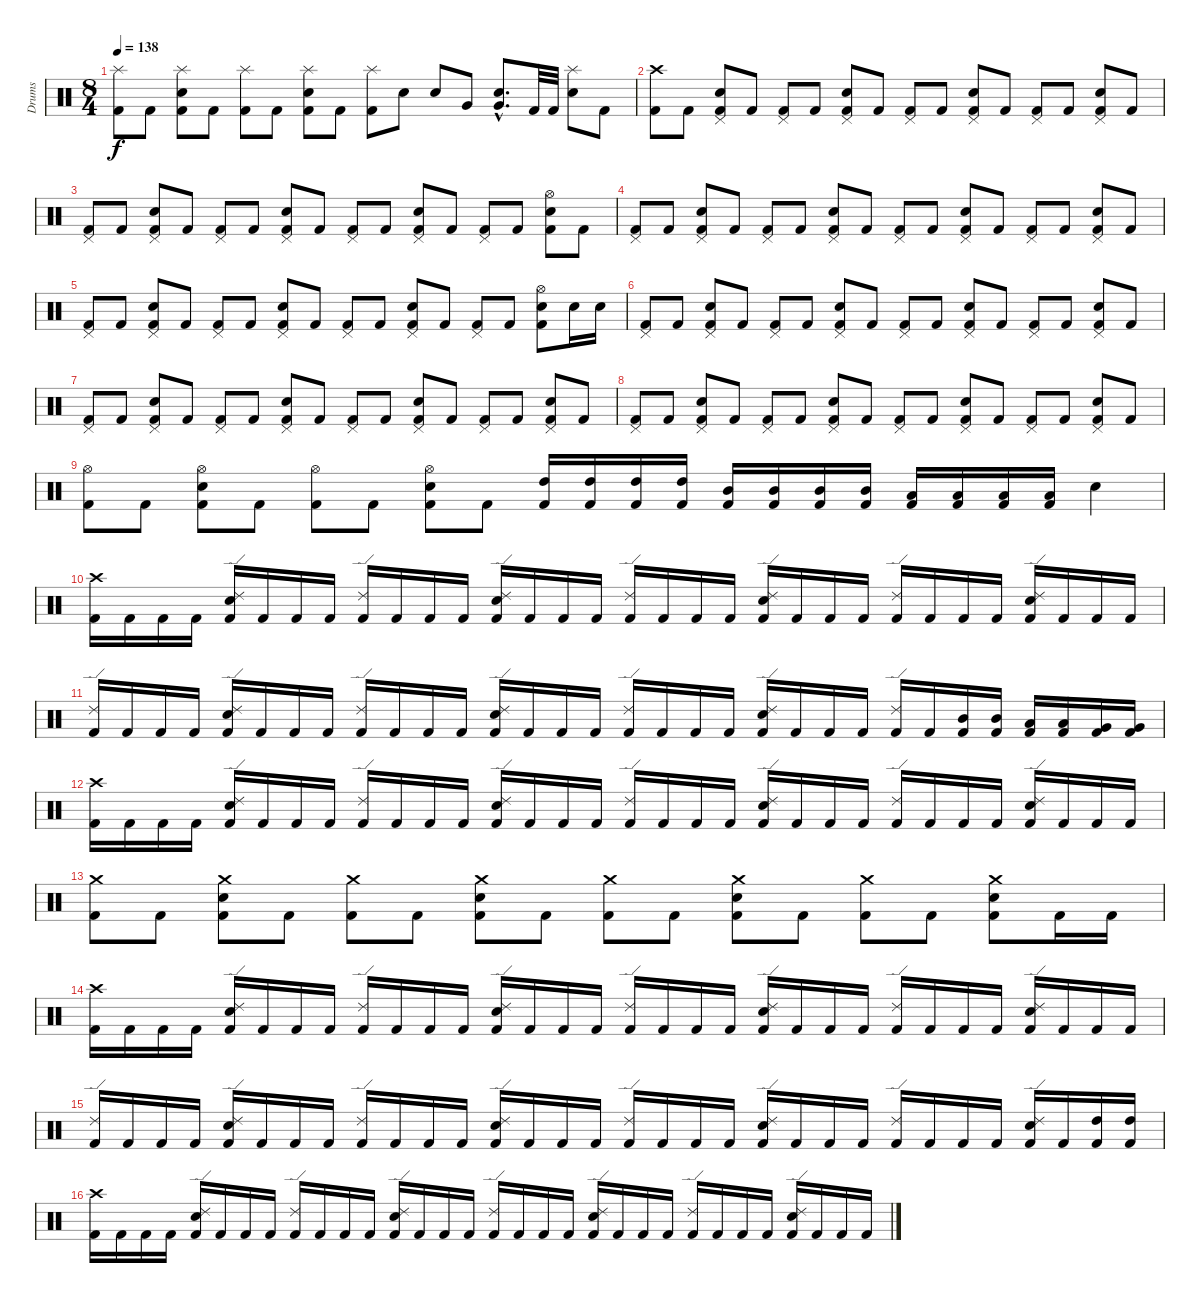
\track ("Drums" "Drums") {instrument percussion}
\staff {score}
\articulation defaults
\ts (8 4)
\tempo 138
\clef neutral
\ks c
("Splash (hit)" "Kick (hit) 2").8{dy f} "Kick (hit) 2".8 ("Splash (hit)" "Snare (hit) 2" "Kick (hit) 2").8 "Kick (hit) 2".8 ("Splash (hit)" "Kick (hit) 2").8 "Kick (hit) 2".8 ("Splash (hit)" "Snare (hit) 2" "Kick (hit) 2").8 "Kick (hit) 2".8 ("Splash (hit)" "Kick (hit) 2").8 "Snare (hit) 2".8 "Snare (hit) 2".8 "Very Low Tom (hit)".8 ("Very Low Tom (hit)"{hac} "Snare (hit) 2"{hac}).8{d} "Kick (hit) 2".32 "Kick (hit) 2".32 ("Splash (hit)" "Snare (hit) 2").8 "Kick (hit) 2".8 |
("Crash high (hit)" "Kick (hit) 2").8 "Kick (hit) 2".8 ("Pedal Hi-Hat (hit)" "Snare (hit) 2" "Kick (hit) 2").8 "Kick (hit) 2".8 ("Pedal Hi-Hat (hit)" "Kick (hit) 2").8 "Kick (hit) 2".8 ("Pedal Hi-Hat (hit)" "Snare (hit) 2" "Kick (hit) 2").8 "Kick (hit) 2".8 ("Pedal Hi-Hat (hit)" "Kick (hit) 2").8 "Kick (hit) 2".8 ("Pedal Hi-Hat (hit)" "Snare (hit) 2" "Kick (hit) 2").8 "Kick (hit) 2".8 ("Pedal Hi-Hat (hit)" "Kick (hit) 2").8 "Kick (hit) 2".8 ("Pedal Hi-Hat (hit)" "Snare (hit) 2" "Kick (hit) 2").8 "Kick (hit) 2".8 |
("Pedal Hi-Hat (hit)" "Kick (hit) 2").8 "Kick (hit) 2".8 ("Pedal Hi-Hat (hit)" "Snare (hit) 2" "Kick (hit) 2").8 "Kick (hit) 2".8 ("Pedal Hi-Hat (hit)" "Kick (hit) 2").8 "Kick (hit) 2".8 ("Pedal Hi-Hat (hit)" "Snare (hit) 2" "Kick (hit) 2").8 "Kick (hit) 2".8 ("Pedal Hi-Hat (hit)" "Kick (hit) 2").8 "Kick (hit) 2".8 ("Pedal Hi-Hat (hit)" "Snare (hit) 2" "Kick (hit) 2").8 "Kick (hit) 2".8 ("Pedal Hi-Hat (hit)" "Kick (hit) 2").8 "Kick (hit) 2".8 ("Hi-Hat (open)" "Snare (hit) 2" "Kick (hit) 2").8 "Kick (hit) 2".8 |
("Pedal Hi-Hat (hit)" "Kick (hit) 2").8 "Kick (hit) 2".8 ("Pedal Hi-Hat (hit)" "Snare (hit) 2" "Kick (hit) 2").8 "Kick (hit) 2".8 ("Pedal Hi-Hat (hit)" "Kick (hit) 2").8 "Kick (hit) 2".8 ("Pedal Hi-Hat (hit)" "Snare (hit) 2" "Kick (hit) 2").8 "Kick (hit) 2".8 ("Pedal Hi-Hat (hit)" "Kick (hit) 2").8 "Kick (hit) 2".8 ("Pedal Hi-Hat (hit)" "Snare (hit) 2" "Kick (hit) 2").8 "Kick (hit) 2".8 ("Pedal Hi-Hat (hit)" "Kick (hit) 2").8 "Kick (hit) 2".8 ("Pedal Hi-Hat (hit)" "Snare (hit) 2" "Kick (hit) 2").8 "Kick (hit) 2".8 |
("Pedal Hi-Hat (hit)" "Kick (hit) 2").8 "Kick (hit) 2".8 ("Pedal Hi-Hat (hit)" "Snare (hit) 2" "Kick (hit) 2").8 "Kick (hit) 2".8 ("Pedal Hi-Hat (hit)" "Kick (hit) 2").8 "Kick (hit) 2".8 ("Pedal Hi-Hat (hit)" "Snare (hit) 2" "Kick (hit) 2").8 "Kick (hit) 2".8 ("Pedal Hi-Hat (hit)" "Kick (hit) 2").8 "Kick (hit) 2".8 ("Pedal Hi-Hat (hit)" "Snare (hit) 2" "Kick (hit) 2").8 "Kick (hit) 2".8 ("Pedal Hi-Hat (hit)" "Kick (hit) 2").8 "Kick (hit) 2".8 ("Hi-Hat (open)" "Snare (hit) 2" "Kick (hit) 2").8 "Snare (hit) 2".16 "Snare (hit) 2".16 |
("Pedal Hi-Hat (hit)" "Kick (hit) 2").8 "Kick (hit) 2".8 ("Pedal Hi-Hat (hit)" "Snare (hit) 2" "Kick (hit) 2").8 "Kick (hit) 2".8 ("Pedal Hi-Hat (hit)" "Kick (hit) 2").8 "Kick (hit) 2".8 ("Pedal Hi-Hat (hit)" "Snare (hit) 2" "Kick (hit) 2").8 "Kick (hit) 2".8 ("Pedal Hi-Hat (hit)" "Kick (hit) 2").8 "Kick (hit) 2".8 ("Pedal Hi-Hat (hit)" "Snare (hit) 2" "Kick (hit) 2").8 "Kick (hit) 2".8 ("Pedal Hi-Hat (hit)" "Kick (hit) 2").8 "Kick (hit) 2".8 ("Pedal Hi-Hat (hit)" "Snare (hit) 2" "Kick (hit) 2").8 "Kick (hit) 2".8 |
("Pedal Hi-Hat (hit)" "Kick (hit) 2").8 "Kick (hit) 2".8 ("Pedal Hi-Hat (hit)" "Snare (hit) 2" "Kick (hit) 2").8 "Kick (hit) 2".8 ("Pedal Hi-Hat (hit)" "Kick (hit) 2").8 "Kick (hit) 2".8 ("Pedal Hi-Hat (hit)" "Snare (hit) 2" "Kick (hit) 2").8 "Kick (hit) 2".8 ("Pedal Hi-Hat (hit)" "Kick (hit) 2").8 "Kick (hit) 2".8 ("Pedal Hi-Hat (hit)" "Snare (hit) 2" "Kick (hit) 2").8 "Kick (hit) 2".8 ("Pedal Hi-Hat (hit)" "Kick (hit) 2").8 "Kick (hit) 2".8 ("Pedal Hi-Hat (hit)" "Snare (hit) 2" "Kick (hit) 2").8 "Kick (hit) 2".8 |
("Pedal Hi-Hat (hit)" "Kick (hit) 2").8 "Kick (hit) 2".8 ("Pedal Hi-Hat (hit)" "Snare (hit) 2" "Kick (hit) 2").8 "Kick (hit) 2".8 ("Pedal Hi-Hat (hit)" "Kick (hit) 2").8 "Kick (hit) 2".8 ("Pedal Hi-Hat (hit)" "Snare (hit) 2" "Kick (hit) 2").8 "Kick (hit) 2".8 ("Pedal Hi-Hat (hit)" "Kick (hit) 2").8 "Kick (hit) 2".8 ("Pedal Hi-Hat (hit)" "Snare (hit) 2" "Kick (hit) 2").8 "Kick (hit) 2".8 ("Pedal Hi-Hat (hit)" "Kick (hit) 2").8 "Kick (hit) 2".8 ("Pedal Hi-Hat (hit)" "Snare (hit) 2" "Kick (hit) 2").8 "Kick (hit) 2".8 |
("Hi-Hat (open)" "Kick (hit) 2").8 "Kick (hit) 2".8 ("Hi-Hat (open)" "Snare (hit) 2" "Kick (hit) 2").8 "Kick (hit) 2".8 ("Hi-Hat (open)" "Kick (hit) 2").8 "Kick (hit) 2".8 ("Hi-Hat (open)" "Snare (hit) 2" "Kick (hit) 2").8 "Kick (hit) 2".8 ("High Tom (hit)" "Kick (hit) 2").16 ("High Tom (hit)" "Kick (hit) 2").16 ("High Tom (hit)" "Kick (hit) 2").16 ("High Tom (hit)" "Kick (hit) 2").16 ("Mid Tom (hit)" "Kick (hit) 2").16 ("Mid Tom (hit)" "Kick (hit) 2").16 ("Mid Tom (hit)" "Kick (hit) 2").16 ("Mid Tom (hit)" "Kick (hit) 2").16 ("Low Tom (hit)" "Kick (hit) 2").16 ("Low Tom (hit)" "Kick (hit) 2").16 ("Low Tom (hit)" "Kick (hit) 2").16 ("Low Tom (hit)" "Kick (hit) 2").16 "Snare (hit) 2".4 |
("Crash high (hit)" "Kick (hit) 2").16 "Kick (hit) 2".16 "Kick (hit) 2".16 "Kick (hit) 2".16 ("Ride (edge) 2" "Snare (hit) 2" "Kick (hit) 2").16 "Kick (hit) 2".16 "Kick (hit) 2".16 "Kick (hit) 2".16 ("Ride (edge) 2" "Kick (hit) 2").16 "Kick (hit) 2".16 "Kick (hit) 2".16 "Kick (hit) 2".16 ("Ride (edge) 2" "Snare (hit) 2" "Kick (hit) 2").16 "Kick (hit) 2".16 "Kick (hit) 2".16 "Kick (hit) 2".16 ("Ride (edge) 2" "Kick (hit) 2").16 "Kick (hit) 2".16 "Kick (hit) 2".16 "Kick (hit) 2".16 ("Ride (edge) 2" "Snare (hit) 2" "Kick (hit) 2").16 "Kick (hit) 2".16 "Kick (hit) 2".16 "Kick (hit) 2".16 ("Ride (edge) 2" "Kick (hit) 2").16 "Kick (hit) 2".16 "Kick (hit) 2".16 "Kick (hit) 2".16 ("Ride (edge) 2" "Snare (hit) 2" "Kick (hit) 2").16 "Kick (hit) 2".16 "Kick (hit) 2".16 "Kick (hit) 2".16 |
("Ride (edge) 2" "Kick (hit) 2").16 "Kick (hit) 2".16 "Kick (hit) 2".16 "Kick (hit) 2".16 ("Ride (edge) 2" "Snare (hit) 2" "Kick (hit) 2").16 "Kick (hit) 2".16 "Kick (hit) 2".16 "Kick (hit) 2".16 ("Ride (edge) 2" "Kick (hit) 2").16 "Kick (hit) 2".16 "Kick (hit) 2".16 "Kick (hit) 2".16 ("Ride (edge) 2" "Snare (hit) 2" "Kick (hit) 2").16 "Kick (hit) 2".16 "Kick (hit) 2".16 "Kick (hit) 2".16 ("Ride (edge) 2" "Kick (hit) 2").16 "Kick (hit) 2".16 "Kick (hit) 2".16 "Kick (hit) 2".16 ("Ride (edge) 2" "Snare (hit) 2" "Kick (hit) 2").16 "Kick (hit) 2".16 "Kick (hit) 2".16 "Kick (hit) 2".16 ("Ride (edge) 2" "Kick (hit) 2").16 "Kick (hit) 2".16 ("Mid Tom (hit)" "Kick (hit) 2").16 ("Mid Tom (hit)" "Kick (hit) 2").16 ("Low Tom (hit)" "Kick (hit) 2").16 ("Low Tom (hit)" "Kick (hit) 2").16 ("Very Low Tom (hit)" "Kick (hit) 2").16 ("Very Low Tom (hit)" "Kick (hit) 2").16 |
("Crash high (hit)" "Kick (hit) 2").16 "Kick (hit) 2".16 "Kick (hit) 2".16 "Kick (hit) 2".16 ("Ride (edge) 2" "Snare (hit) 2" "Kick (hit) 2").16 "Kick (hit) 2".16 "Kick (hit) 2".16 "Kick (hit) 2".16 ("Ride (edge) 2" "Kick (hit) 2").16 "Kick (hit) 2".16 "Kick (hit) 2".16 "Kick (hit) 2".16 ("Ride (edge) 2" "Snare (hit) 2" "Kick (hit) 2").16 "Kick (hit) 2".16 "Kick (hit) 2".16 "Kick (hit) 2".16 ("Ride (edge) 2" "Kick (hit) 2").16 "Kick (hit) 2".16 "Kick (hit) 2".16 "Kick (hit) 2".16 ("Ride (edge) 2" "Snare (hit) 2" "Kick (hit) 2").16 "Kick (hit) 2".16 "Kick (hit) 2".16 "Kick (hit) 2".16 ("Ride (edge) 2" "Kick (hit) 2").16 "Kick (hit) 2".16 "Kick (hit) 2".16 "Kick (hit) 2".16 ("Ride (edge) 2" "Snare (hit) 2" "Kick (hit) 2").16 "Kick (hit) 2".16 "Kick (hit) 2".16 "Kick (hit) 2".16 |
("Crash medium (hit)" "Kick (hit) 2").8 "Kick (hit) 2".8 ("Crash medium (hit)" "Snare (hit) 2" "Kick (hit) 2").8 "Kick (hit) 2".8 ("Crash medium (hit)" "Kick (hit) 2").8 "Kick (hit) 2".8 ("Crash medium (hit)" "Snare (hit) 2" "Kick (hit) 2").8 "Kick (hit) 2".8 ("Crash medium (hit)" "Kick (hit) 2").8 "Kick (hit) 2".8 ("Crash medium (hit)" "Snare (hit) 2" "Kick (hit) 2").8 "Kick (hit) 2".8 ("Crash medium (hit)" "Kick (hit) 2").8 "Kick (hit) 2".8 ("Crash medium (hit)" "Snare (hit) 2" "Kick (hit) 2").8 "Kick (hit) 2".16 "Kick (hit) 2".16 |
("Crash high (hit)" "Kick (hit) 2").16 "Kick (hit) 2".16 "Kick (hit) 2".16 "Kick (hit) 2".16 ("Ride (edge) 2" "Snare (hit) 2" "Kick (hit) 2").16 "Kick (hit) 2".16 "Kick (hit) 2".16 "Kick (hit) 2".16 ("Ride (edge) 2" "Kick (hit) 2").16 "Kick (hit) 2".16 "Kick (hit) 2".16 "Kick (hit) 2".16 ("Ride (edge) 2" "Snare (hit) 2" "Kick (hit) 2").16 "Kick (hit) 2".16 "Kick (hit) 2".16 "Kick (hit) 2".16 ("Ride (edge) 2" "Kick (hit) 2").16 "Kick (hit) 2".16 "Kick (hit) 2".16 "Kick (hit) 2".16 ("Ride (edge) 2" "Snare (hit) 2" "Kick (hit) 2").16 "Kick (hit) 2".16 "Kick (hit) 2".16 "Kick (hit) 2".16 ("Ride (edge) 2" "Kick (hit) 2").16 "Kick (hit) 2".16 "Kick (hit) 2".16 "Kick (hit) 2".16 ("Ride (edge) 2" "Snare (hit) 2" "Kick (hit) 2").16 "Kick (hit) 2".16 "Kick (hit) 2".16 "Kick (hit) 2".16 |
("Ride (edge) 2" "Kick (hit) 2").16 "Kick (hit) 2".16 "Kick (hit) 2".16 "Kick (hit) 2".16 ("Ride (edge) 2" "Snare (hit) 2" "Kick (hit) 2").16 "Kick (hit) 2".16 "Kick (hit) 2".16 "Kick (hit) 2".16 ("Ride (edge) 2" "Kick (hit) 2").16 "Kick (hit) 2".16 "Kick (hit) 2".16 "Kick (hit) 2".16 ("Ride (edge) 2" "Snare (hit) 2" "Kick (hit) 2").16 "Kick (hit) 2".16 "Kick (hit) 2".16 "Kick (hit) 2".16 ("Ride (edge) 2" "Kick (hit) 2").16 "Kick (hit) 2".16 "Kick (hit) 2".16 "Kick (hit) 2".16 ("Ride (edge) 2" "Snare (hit) 2" "Kick (hit) 2").16 "Kick (hit) 2".16 "Kick (hit) 2".16 "Kick (hit) 2".16 ("Ride (edge) 2" "Kick (hit) 2").16 "Kick (hit) 2".16 "Kick (hit) 2".16 "Kick (hit) 2".16 ("Ride (edge) 2" "Snare (hit) 2" "Kick (hit) 2").16 "Kick (hit) 2".16 ("High Tom (hit)" "Kick (hit) 2").16 ("High Tom (hit)" "Kick (hit) 2").16 |
("Crash high (hit)" "Kick (hit) 2").16 "Kick (hit) 2".16 "Kick (hit) 2".16 "Kick (hit) 2".16 ("Ride (edge) 2" "Snare (hit) 2" "Kick (hit) 2").16 "Kick (hit) 2".16 "Kick (hit) 2".16 "Kick (hit) 2".16 ("Ride (edge) 2" "Kick (hit) 2").16 "Kick (hit) 2".16 "Kick (hit) 2".16 "Kick (hit) 2".16 ("Ride (edge) 2" "Snare (hit) 2" "Kick (hit) 2").16 "Kick (hit) 2".16 "Kick (hit) 2".16 "Kick (hit) 2".16 ("Ride (edge) 2" "Kick (hit) 2").16 "Kick (hit) 2".16 "Kick (hit) 2".16 "Kick (hit) 2".16 ("Ride (edge) 2" "Snare (hit) 2" "Kick (hit) 2").16 "Kick (hit) 2".16 "Kick (hit) 2".16 "Kick (hit) 2".16 ("Ride (edge) 2" "Kick (hit) 2").16 "Kick (hit) 2".16 "Kick (hit) 2".16 "Kick (hit) 2".16 ("Ride (edge) 2" "Snare (hit) 2" "Kick (hit) 2").16 "Kick (hit) 2".16 "Kick (hit) 2".16 "Kick (hit) 2".16
